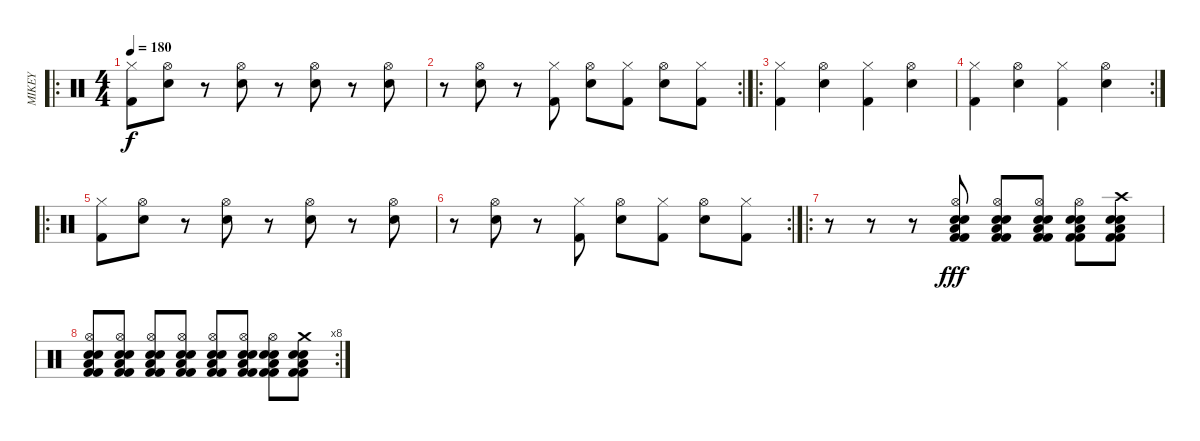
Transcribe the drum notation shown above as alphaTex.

\track ("MIKEY" "MIKEY") {instrument percussion}
\staff {score}
\articulation defaults
\ro
\ts (4 4)
\tempo 180
\clef neutral
\ks c
("Hi-Hat (closed)" "Kick (hit) 2").8{dy f} ("Hi-Hat (open)" "Snare (hit) 2").8 r.8 ("Hi-Hat (open)" "Snare (hit) 2").8 r.8 ("Hi-Hat (open)" "Snare (hit) 2").8 r.8 ("Hi-Hat (open)" "Snare (hit) 2").8 |
\rc 2
r.8 ("Hi-Hat (open)" "Snare (hit) 2").8 r.8 ("Hi-Hat (closed)" "Kick (hit) 2").8 ("Hi-Hat (open)" "Snare (hit) 2").8 ("Hi-Hat (closed)" "Kick (hit) 2").8 ("Hi-Hat (open)" "Snare (hit) 2").8 ("Hi-Hat (closed)" "Kick (hit) 2").8 |
\ro
("Hi-Hat (closed)" "Kick (hit) 2").4 ("Hi-Hat (open)" "Snare (hit) 2").4 ("Hi-Hat (closed)" "Kick (hit) 2").4 ("Hi-Hat (open)" "Snare (hit) 2").4 |
\rc 2
("Hi-Hat (closed)" "Kick (hit) 2").4 ("Hi-Hat (open)" "Snare (hit) 2").4 ("Hi-Hat (closed)" "Kick (hit) 2").4 ("Hi-Hat (open)" "Snare (hit) 2").4 |
\ro
("Hi-Hat (closed)" "Kick (hit) 2").8 ("Hi-Hat (open)" "Snare (hit) 2").8 r.8 ("Hi-Hat (open)" "Snare (hit) 2").8 r.8 ("Hi-Hat (open)" "Snare (hit) 2").8 r.8 ("Hi-Hat (open)" "Snare (hit) 2").8 |
\rc 2
r.8 ("Hi-Hat (open)" "Snare (hit) 2").8 r.8 ("Hi-Hat (closed)" "Kick (hit) 2").8 ("Hi-Hat (open)" "Snare (hit) 2").8 ("Hi-Hat (closed)" "Kick (hit) 2").8 ("Hi-Hat (open)" "Snare (hit) 2").8 ("Hi-Hat (closed)" "Kick (hit) 2").8 |
\ro
r.8 r.8 r.8 ("Hi-Hat (open)" "Low Floor Tom (hit)" "Electric Snare (hit)" "Kick (hit) 2" "Snare (hit) 2" "Kick (hit) 2").8{dy fff} ("Hi-Hat (open)" "Low Floor Tom (hit)" "Electric Snare (hit)" "Kick (hit) 2" "Snare (hit) 2" "Kick (hit) 2").8 ("Hi-Hat (open)" "Low Floor Tom (hit)" "Electric Snare (hit)" "Kick (hit) 2" "Snare (hit) 2" "Kick (hit) 2").8 ("Hi-Hat (open)" "Low Floor Tom (hit)" "Electric Snare (hit)" "Kick (hit) 2" "Snare (hit) 2" "Kick (hit) 2").8 ("Crash high (hit)" "Low Floor Tom (hit)" "Electric Snare (hit)" "Kick (hit) 2" "Snare (hit) 2" "Kick (hit) 2").8 |
\rc 8
("Hi-Hat (open)" "Low Floor Tom (hit)" "Electric Snare (hit)" "Kick (hit) 2" "Snare (hit) 2" "Kick (hit) 2").8 ("Hi-Hat (open)" "Low Floor Tom (hit)" "Electric Snare (hit)" "Kick (hit) 2" "Snare (hit) 2" "Kick (hit) 2").8 ("Hi-Hat (open)" "Low Floor Tom (hit)" "Electric Snare (hit)" "Kick (hit) 2" "Snare (hit) 2" "Kick (hit) 2").8 ("Hi-Hat (open)" "Low Floor Tom (hit)" "Electric Snare (hit)" "Kick (hit) 2" "Snare (hit) 2" "Kick (hit) 2").8 ("Hi-Hat (open)" "Low Floor Tom (hit)" "Electric Snare (hit)" "Kick (hit) 2" "Snare (hit) 2" "Kick (hit) 2").8 ("Hi-Hat (open)" "Low Floor Tom (hit)" "Electric Snare (hit)" "Kick (hit) 2" "Snare (hit) 2" "Kick (hit) 2").8 ("Hi-Hat (open)" "Low Floor Tom (hit)" "Electric Snare (hit)" "Kick (hit) 2" "Snare (hit) 2" "Kick (hit) 2").8 ("Crash medium (hit)" "Low Floor Tom (hit)" "Electric Snare (hit)" "Kick (hit) 2" "Snare (hit) 2" "Kick (hit) 2").8
